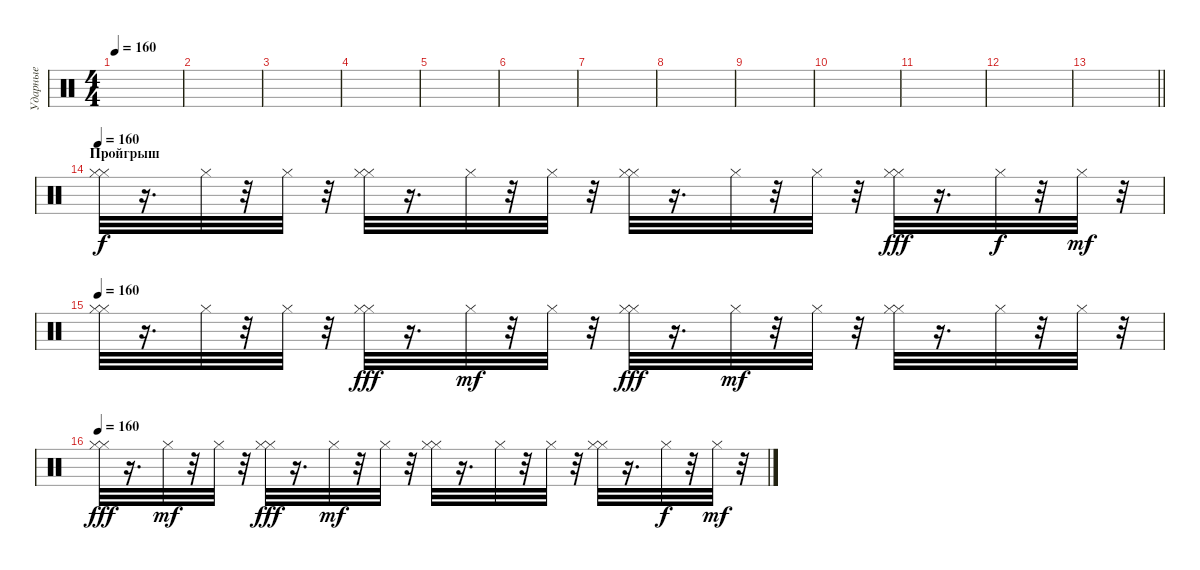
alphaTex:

\track ("Ударные" "Ударные") {instrument percussion}
\staff {score}
\articulation defaults
\ts (4 4)
\tempo 160
\clef neutral
\ks c
|
|
|
|
|
|
|
|
|
|
|
|
\barLineRight lightlight
|
\section ("" "Пройгрыш")
\tempo 160
("Hi-Hat (closed)" "Hi-Hat (closed)").32 r.16{d} "Hi-Hat (closed)".32 r.32 "Hi-Hat (closed)".32 r.32 ("Hi-Hat (closed)" "Hi-Hat (closed)").32 r.16{d} "Hi-Hat (closed)".32 r.32 "Hi-Hat (closed)".32 r.32 ("Hi-Hat (closed)" "Hi-Hat (closed)").32 r.16{d} "Hi-Hat (closed)".32 r.32 "Hi-Hat (closed)".32 r.32 ("Hi-Hat (closed)" "Hi-Hat (closed)").32{dy fff} r.16{d} "Hi-Hat (closed)".32{dy f} r.32 "Hi-Hat (closed)".32{dy mf} r.32 |
\tempo 160
("Hi-Hat (closed)" "Hi-Hat (closed)").32 r.16{d} "Hi-Hat (closed)".32 r.32 "Hi-Hat (closed)".32 r.32 ("Hi-Hat (closed)" "Hi-Hat (closed)").32{dy fff} r.16{d} "Hi-Hat (closed)".32{dy mf} r.32 "Hi-Hat (closed)".32 r.32 ("Hi-Hat (closed)" "Hi-Hat (closed)").32{dy fff} r.16{d} "Hi-Hat (closed)".32{dy mf} r.32 "Hi-Hat (closed)".32 r.32 ("Hi-Hat (closed)" "Hi-Hat (closed)").32 r.16{d} "Hi-Hat (closed)".32 r.32 "Hi-Hat (closed)".32 r.32 |
\tempo 160
("Hi-Hat (closed)" "Hi-Hat (closed)").32{dy fff} r.16{d} "Hi-Hat (closed)".32{dy mf} r.32 "Hi-Hat (closed)".32 r.32 ("Hi-Hat (closed)" "Hi-Hat (closed)").32{dy fff} r.16{d} "Hi-Hat (closed)".32{dy mf} r.32 "Hi-Hat (closed)".32 r.32 ("Hi-Hat (closed)" "Hi-Hat (closed)").32 r.16{d} "Hi-Hat (closed)".32 r.32 "Hi-Hat (closed)".32 r.32 ("Hi-Hat (closed)" "Hi-Hat (closed)").32 r.16{d} "Hi-Hat (closed)".32{dy f} r.32 "Hi-Hat (closed)".32{dy mf} r.32
